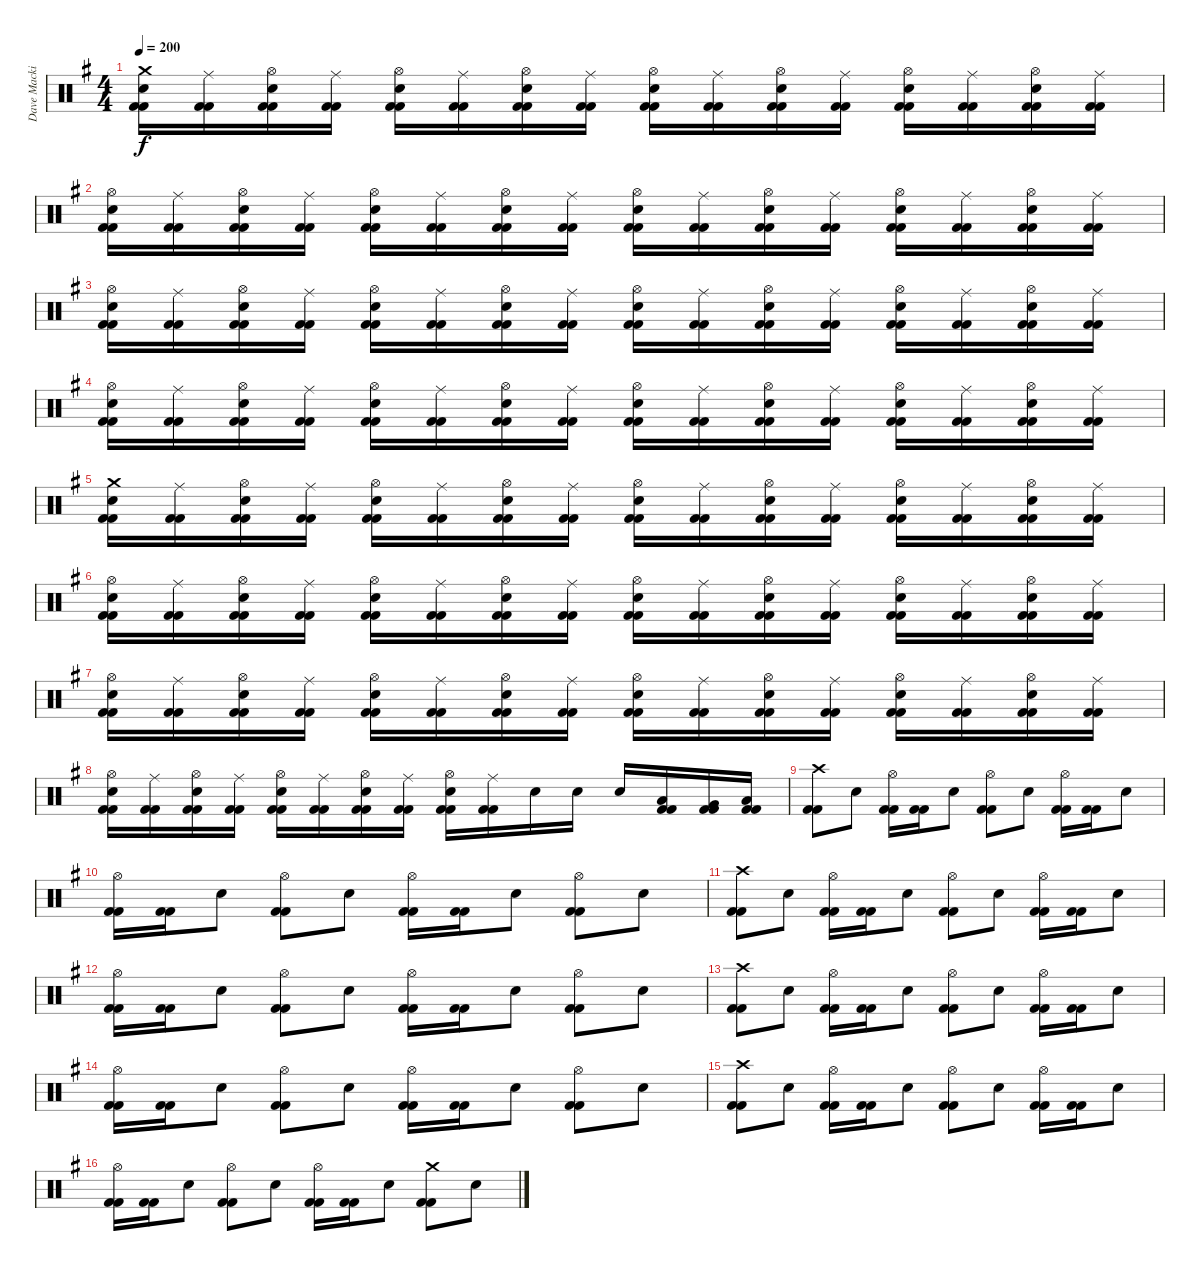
\track ("Dave Mackintosh" "Dave Macki") {instrument percussion}
\staff {score}
\articulation defaults
\ts (4 4)
\tempo 200
\clef neutral
\ks g
("Crash medium (hit)" "Electric Snare (hit)" "Kick (hit) 2" "Kick (hit) 2").16{dy f} ("Ride (middle)" "Kick (hit) 2" "Kick (hit) 2").16 ("Hi-Hat (open)" "Electric Snare (hit)" "Kick (hit) 2" "Kick (hit) 2").16 ("Ride (middle)" "Kick (hit) 2" "Kick (hit) 2").16 ("Hi-Hat (open)" "Electric Snare (hit)" "Kick (hit) 2" "Kick (hit) 2").16 ("Ride (middle)" "Kick (hit) 2" "Kick (hit) 2").16 ("Hi-Hat (open)" "Electric Snare (hit)" "Kick (hit) 2" "Kick (hit) 2").16 ("Ride (middle)" "Kick (hit) 2" "Kick (hit) 2").16 ("Hi-Hat (open)" "Electric Snare (hit)" "Kick (hit) 2" "Kick (hit) 2").16 ("Ride (middle)" "Kick (hit) 2" "Kick (hit) 2").16 ("Hi-Hat (open)" "Electric Snare (hit)" "Kick (hit) 2" "Kick (hit) 2").16 ("Ride (middle)" "Kick (hit) 2" "Kick (hit) 2").16 ("Hi-Hat (open)" "Electric Snare (hit)" "Kick (hit) 2" "Kick (hit) 2").16 ("Ride (middle)" "Kick (hit) 2" "Kick (hit) 2").16 ("Hi-Hat (open)" "Electric Snare (hit)" "Kick (hit) 2" "Kick (hit) 2").16 ("Ride (middle)" "Kick (hit) 2" "Kick (hit) 2").16 |
("Hi-Hat (open)" "Electric Snare (hit)" "Kick (hit) 2" "Kick (hit) 2").16 ("Ride (middle)" "Kick (hit) 2" "Kick (hit) 2").16 ("Hi-Hat (open)" "Electric Snare (hit)" "Kick (hit) 2" "Kick (hit) 2").16 ("Ride (middle)" "Kick (hit) 2" "Kick (hit) 2").16 ("Hi-Hat (open)" "Electric Snare (hit)" "Kick (hit) 2" "Kick (hit) 2").16 ("Ride (middle)" "Kick (hit) 2" "Kick (hit) 2").16 ("Hi-Hat (open)" "Electric Snare (hit)" "Kick (hit) 2" "Kick (hit) 2").16 ("Ride (middle)" "Kick (hit) 2" "Kick (hit) 2").16 ("Hi-Hat (open)" "Electric Snare (hit)" "Kick (hit) 2" "Kick (hit) 2").16 ("Ride (middle)" "Kick (hit) 2" "Kick (hit) 2").16 ("Hi-Hat (open)" "Electric Snare (hit)" "Kick (hit) 2" "Kick (hit) 2").16 ("Ride (middle)" "Kick (hit) 2" "Kick (hit) 2").16 ("Hi-Hat (open)" "Electric Snare (hit)" "Kick (hit) 2" "Kick (hit) 2").16 ("Ride (middle)" "Kick (hit) 2" "Kick (hit) 2").16 ("Hi-Hat (open)" "Electric Snare (hit)" "Kick (hit) 2" "Kick (hit) 2").16 ("Ride (middle)" "Kick (hit) 2" "Kick (hit) 2").16 |
("Hi-Hat (open)" "Electric Snare (hit)" "Kick (hit) 2" "Kick (hit) 2").16 ("Ride (middle)" "Kick (hit) 2" "Kick (hit) 2").16 ("Hi-Hat (open)" "Electric Snare (hit)" "Kick (hit) 2" "Kick (hit) 2").16 ("Ride (middle)" "Kick (hit) 2" "Kick (hit) 2").16 ("Hi-Hat (open)" "Electric Snare (hit)" "Kick (hit) 2" "Kick (hit) 2").16 ("Ride (middle)" "Kick (hit) 2" "Kick (hit) 2").16 ("Hi-Hat (open)" "Electric Snare (hit)" "Kick (hit) 2" "Kick (hit) 2").16 ("Ride (middle)" "Kick (hit) 2" "Kick (hit) 2").16 ("Hi-Hat (open)" "Electric Snare (hit)" "Kick (hit) 2" "Kick (hit) 2").16 ("Ride (middle)" "Kick (hit) 2" "Kick (hit) 2").16 ("Hi-Hat (open)" "Electric Snare (hit)" "Kick (hit) 2" "Kick (hit) 2").16 ("Ride (middle)" "Kick (hit) 2" "Kick (hit) 2").16 ("Hi-Hat (open)" "Electric Snare (hit)" "Kick (hit) 2" "Kick (hit) 2").16 ("Ride (middle)" "Kick (hit) 2" "Kick (hit) 2").16 ("Hi-Hat (open)" "Electric Snare (hit)" "Kick (hit) 2" "Kick (hit) 2").16 ("Ride (middle)" "Kick (hit) 2" "Kick (hit) 2").16 |
("Hi-Hat (open)" "Electric Snare (hit)" "Kick (hit) 2" "Kick (hit) 2").16 ("Ride (middle)" "Kick (hit) 2" "Kick (hit) 2").16 ("Hi-Hat (open)" "Electric Snare (hit)" "Kick (hit) 2" "Kick (hit) 2").16 ("Ride (middle)" "Kick (hit) 2" "Kick (hit) 2").16 ("Hi-Hat (open)" "Electric Snare (hit)" "Kick (hit) 2" "Kick (hit) 2").16 ("Ride (middle)" "Kick (hit) 2" "Kick (hit) 2").16 ("Hi-Hat (open)" "Electric Snare (hit)" "Kick (hit) 2" "Kick (hit) 2").16 ("Ride (middle)" "Kick (hit) 2" "Kick (hit) 2").16 ("Hi-Hat (open)" "Electric Snare (hit)" "Kick (hit) 2" "Kick (hit) 2").16 ("Ride (middle)" "Kick (hit) 2" "Kick (hit) 2").16 ("Hi-Hat (open)" "Electric Snare (hit)" "Kick (hit) 2" "Kick (hit) 2").16 ("Ride (middle)" "Kick (hit) 2" "Kick (hit) 2").16 ("Hi-Hat (open)" "Electric Snare (hit)" "Kick (hit) 2" "Kick (hit) 2").16 ("Ride (middle)" "Kick (hit) 2" "Kick (hit) 2").16 ("Hi-Hat (open)" "Electric Snare (hit)" "Kick (hit) 2" "Kick (hit) 2").16 ("Ride (middle)" "Kick (hit) 2" "Kick (hit) 2").16 |
("Crash medium (hit)" "Electric Snare (hit)" "Kick (hit) 2" "Kick (hit) 2").16 ("Ride (middle)" "Kick (hit) 2" "Kick (hit) 2").16 ("Hi-Hat (open)" "Electric Snare (hit)" "Kick (hit) 2" "Kick (hit) 2").16 ("Ride (middle)" "Kick (hit) 2" "Kick (hit) 2").16 ("Hi-Hat (open)" "Electric Snare (hit)" "Kick (hit) 2" "Kick (hit) 2").16 ("Ride (middle)" "Kick (hit) 2" "Kick (hit) 2").16 ("Hi-Hat (open)" "Electric Snare (hit)" "Kick (hit) 2" "Kick (hit) 2").16 ("Ride (middle)" "Kick (hit) 2" "Kick (hit) 2").16 ("Hi-Hat (open)" "Electric Snare (hit)" "Kick (hit) 2" "Kick (hit) 2").16 ("Ride (middle)" "Kick (hit) 2" "Kick (hit) 2").16 ("Hi-Hat (open)" "Electric Snare (hit)" "Kick (hit) 2" "Kick (hit) 2").16 ("Ride (middle)" "Kick (hit) 2" "Kick (hit) 2").16 ("Hi-Hat (open)" "Electric Snare (hit)" "Kick (hit) 2" "Kick (hit) 2").16 ("Ride (middle)" "Kick (hit) 2" "Kick (hit) 2").16 ("Hi-Hat (open)" "Electric Snare (hit)" "Kick (hit) 2" "Kick (hit) 2").16 ("Ride (middle)" "Kick (hit) 2" "Kick (hit) 2").16 |
("Hi-Hat (open)" "Electric Snare (hit)" "Kick (hit) 2" "Kick (hit) 2").16 ("Ride (middle)" "Kick (hit) 2" "Kick (hit) 2").16 ("Hi-Hat (open)" "Electric Snare (hit)" "Kick (hit) 2" "Kick (hit) 2").16 ("Ride (middle)" "Kick (hit) 2" "Kick (hit) 2").16 ("Hi-Hat (open)" "Electric Snare (hit)" "Kick (hit) 2" "Kick (hit) 2").16 ("Ride (middle)" "Kick (hit) 2" "Kick (hit) 2").16 ("Hi-Hat (open)" "Electric Snare (hit)" "Kick (hit) 2" "Kick (hit) 2").16 ("Ride (middle)" "Kick (hit) 2" "Kick (hit) 2").16 ("Hi-Hat (open)" "Electric Snare (hit)" "Kick (hit) 2" "Kick (hit) 2").16 ("Ride (middle)" "Kick (hit) 2" "Kick (hit) 2").16 ("Hi-Hat (open)" "Electric Snare (hit)" "Kick (hit) 2" "Kick (hit) 2").16 ("Ride (middle)" "Kick (hit) 2" "Kick (hit) 2").16 ("Hi-Hat (open)" "Electric Snare (hit)" "Kick (hit) 2" "Kick (hit) 2").16 ("Ride (middle)" "Kick (hit) 2" "Kick (hit) 2").16 ("Hi-Hat (open)" "Electric Snare (hit)" "Kick (hit) 2" "Kick (hit) 2").16 ("Ride (middle)" "Kick (hit) 2" "Kick (hit) 2").16 |
("Hi-Hat (open)" "Electric Snare (hit)" "Kick (hit) 2" "Kick (hit) 2").16 ("Ride (middle)" "Kick (hit) 2" "Kick (hit) 2").16 ("Hi-Hat (open)" "Electric Snare (hit)" "Kick (hit) 2" "Kick (hit) 2").16 ("Ride (middle)" "Kick (hit) 2" "Kick (hit) 2").16 ("Hi-Hat (open)" "Electric Snare (hit)" "Kick (hit) 2" "Kick (hit) 2").16 ("Ride (middle)" "Kick (hit) 2" "Kick (hit) 2").16 ("Hi-Hat (open)" "Electric Snare (hit)" "Kick (hit) 2" "Kick (hit) 2").16 ("Ride (middle)" "Kick (hit) 2" "Kick (hit) 2").16 ("Hi-Hat (open)" "Electric Snare (hit)" "Kick (hit) 2" "Kick (hit) 2").16 ("Ride (middle)" "Kick (hit) 2" "Kick (hit) 2").16 ("Hi-Hat (open)" "Electric Snare (hit)" "Kick (hit) 2" "Kick (hit) 2").16 ("Ride (middle)" "Kick (hit) 2" "Kick (hit) 2").16 ("Hi-Hat (open)" "Electric Snare (hit)" "Kick (hit) 2" "Kick (hit) 2").16 ("Ride (middle)" "Kick (hit) 2" "Kick (hit) 2").16 ("Hi-Hat (open)" "Electric Snare (hit)" "Kick (hit) 2" "Kick (hit) 2").16 ("Ride (middle)" "Kick (hit) 2" "Kick (hit) 2").16 |
("Hi-Hat (open)" "Electric Snare (hit)" "Kick (hit) 2" "Kick (hit) 2").16 ("Ride (middle)" "Kick (hit) 2" "Kick (hit) 2").16 ("Hi-Hat (open)" "Electric Snare (hit)" "Kick (hit) 2" "Kick (hit) 2").16 ("Ride (middle)" "Kick (hit) 2" "Kick (hit) 2").16 ("Hi-Hat (open)" "Electric Snare (hit)" "Kick (hit) 2" "Kick (hit) 2").16 ("Ride (middle)" "Kick (hit) 2" "Kick (hit) 2").16 ("Hi-Hat (open)" "Electric Snare (hit)" "Kick (hit) 2" "Kick (hit) 2").16 ("Ride (middle)" "Kick (hit) 2" "Kick (hit) 2").16 ("Hi-Hat (open)" "Electric Snare (hit)" "Kick (hit) 2" "Kick (hit) 2").16 ("Ride (middle)" "Kick (hit) 2" "Kick (hit) 2").16 "Electric Snare (hit)".16 "Electric Snare (hit)".16 "Electric Snare (hit)".16 ("Low Tom (hit)" "Kick (hit) 2" "Kick (hit) 2").16 ("Very Low Tom (hit)" "Kick (hit) 2" "Kick (hit) 2").16 ("Low Floor Tom (hit)" "Kick (hit) 2" "Kick (hit) 2").16 |
("Crash high (hit)" "Kick (hit) 2" "Kick (hit) 2").8 "Electric Snare (hit)".8 ("Hi-Hat (open)" "Kick (hit) 2" "Kick (hit) 2").16 ("Kick (hit) 2" "Kick (hit) 2").16 "Electric Snare (hit)".8 ("Hi-Hat (open)" "Kick (hit) 2" "Kick (hit) 2").8 "Electric Snare (hit)".8 ("Hi-Hat (open)" "Kick (hit) 2" "Kick (hit) 2").16 ("Kick (hit) 2" "Kick (hit) 2").16 "Electric Snare (hit)".8 |
("Hi-Hat (open)" "Kick (hit) 2" "Kick (hit) 2").16 ("Kick (hit) 2" "Kick (hit) 2").16 "Electric Snare (hit)".8 ("Hi-Hat (open)" "Kick (hit) 2" "Kick (hit) 2").8 "Electric Snare (hit)".8 ("Hi-Hat (open)" "Kick (hit) 2" "Kick (hit) 2").16 ("Kick (hit) 2" "Kick (hit) 2").16 "Electric Snare (hit)".8 ("Hi-Hat (open)" "Kick (hit) 2" "Kick (hit) 2").8 "Electric Snare (hit)".8 |
("Crash high (hit)" "Kick (hit) 2" "Kick (hit) 2").8 "Electric Snare (hit)".8 ("Hi-Hat (open)" "Kick (hit) 2" "Kick (hit) 2").16 ("Kick (hit) 2" "Kick (hit) 2").16 "Electric Snare (hit)".8 ("Hi-Hat (open)" "Kick (hit) 2" "Kick (hit) 2").8 "Electric Snare (hit)".8 ("Hi-Hat (open)" "Kick (hit) 2" "Kick (hit) 2").16 ("Kick (hit) 2" "Kick (hit) 2").16 "Electric Snare (hit)".8 |
("Hi-Hat (open)" "Kick (hit) 2" "Kick (hit) 2").16 ("Kick (hit) 2" "Kick (hit) 2").16 "Electric Snare (hit)".8 ("Hi-Hat (open)" "Kick (hit) 2" "Kick (hit) 2").8 "Electric Snare (hit)".8 ("Hi-Hat (open)" "Kick (hit) 2" "Kick (hit) 2").16 ("Kick (hit) 2" "Kick (hit) 2").16 "Electric Snare (hit)".8 ("Hi-Hat (open)" "Kick (hit) 2" "Kick (hit) 2").8 "Electric Snare (hit)".8 |
("Crash high (hit)" "Kick (hit) 2" "Kick (hit) 2").8 "Electric Snare (hit)".8 ("Hi-Hat (open)" "Kick (hit) 2" "Kick (hit) 2").16 ("Kick (hit) 2" "Kick (hit) 2").16 "Electric Snare (hit)".8 ("Hi-Hat (open)" "Kick (hit) 2" "Kick (hit) 2").8 "Electric Snare (hit)".8 ("Hi-Hat (open)" "Kick (hit) 2" "Kick (hit) 2").16 ("Kick (hit) 2" "Kick (hit) 2").16 "Electric Snare (hit)".8 |
("Hi-Hat (open)" "Kick (hit) 2" "Kick (hit) 2").16 ("Kick (hit) 2" "Kick (hit) 2").16 "Electric Snare (hit)".8 ("Hi-Hat (open)" "Kick (hit) 2" "Kick (hit) 2").8 "Electric Snare (hit)".8 ("Hi-Hat (open)" "Kick (hit) 2" "Kick (hit) 2").16 ("Kick (hit) 2" "Kick (hit) 2").16 "Electric Snare (hit)".8 ("Hi-Hat (open)" "Kick (hit) 2" "Kick (hit) 2").8 "Electric Snare (hit)".8 |
("Crash high (hit)" "Kick (hit) 2" "Kick (hit) 2").8 "Electric Snare (hit)".8 ("Hi-Hat (open)" "Kick (hit) 2" "Kick (hit) 2").16 ("Kick (hit) 2" "Kick (hit) 2").16 "Electric Snare (hit)".8 ("Hi-Hat (open)" "Kick (hit) 2" "Kick (hit) 2").8 "Electric Snare (hit)".8 ("Hi-Hat (open)" "Kick (hit) 2" "Kick (hit) 2").16 ("Kick (hit) 2" "Kick (hit) 2").16 "Electric Snare (hit)".8 |
("Hi-Hat (open)" "Kick (hit) 2" "Kick (hit) 2").16 ("Kick (hit) 2" "Kick (hit) 2").16 "Electric Snare (hit)".8 ("Hi-Hat (open)" "Kick (hit) 2" "Kick (hit) 2").8 "Electric Snare (hit)".8 ("Hi-Hat (open)" "Kick (hit) 2" "Kick (hit) 2").16 ("Kick (hit) 2" "Kick (hit) 2").16 "Electric Snare (hit)".8 ("Crash medium (hit)" "Kick (hit) 2" "Kick (hit) 2").8 "Electric Snare (hit)".8
